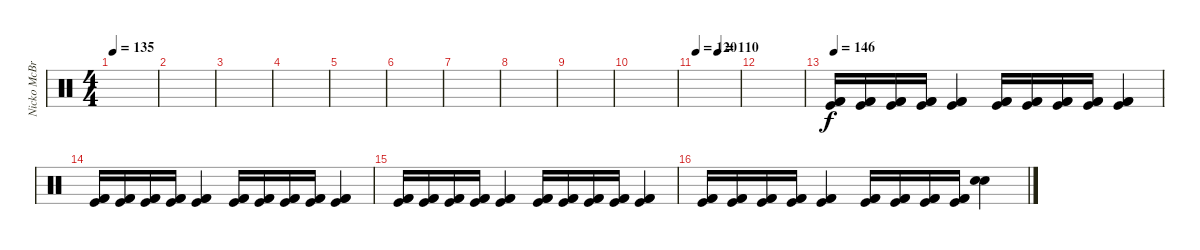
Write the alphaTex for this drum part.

\track ("Nicko McBrain" "Nicko McBr") {instrument percussion}
\staff {score}
\articulation defaults
\ts (4 4)
\tempo 135
\clef neutral
\ks c
|
|
|
|
|
|
|
|
|
|
\tempo 120
\tempo (110 0.5)
|
|
\tempo 146
("Kick (hit)" "Kick (hit) 2" "Kick (hit) 2").16 ("Kick (hit)" "Kick (hit) 2" "Kick (hit) 2").16 ("Kick (hit)" "Kick (hit) 2" "Kick (hit) 2").16 ("Kick (hit)" "Kick (hit) 2" "Kick (hit) 2").16 ("Kick (hit)" "Kick (hit) 2" "Kick (hit) 2").4 ("Kick (hit)" "Kick (hit) 2" "Kick (hit) 2").16 ("Kick (hit)" "Kick (hit) 2" "Kick (hit) 2").16 ("Kick (hit)" "Kick (hit) 2" "Kick (hit) 2").16 ("Kick (hit)" "Kick (hit) 2" "Kick (hit) 2").16 ("Kick (hit)" "Kick (hit) 2" "Kick (hit) 2").4 |
("Kick (hit)" "Kick (hit) 2" "Kick (hit) 2").16 ("Kick (hit)" "Kick (hit) 2" "Kick (hit) 2").16 ("Kick (hit)" "Kick (hit) 2" "Kick (hit) 2").16 ("Kick (hit)" "Kick (hit) 2" "Kick (hit) 2").16 ("Kick (hit)" "Kick (hit) 2" "Kick (hit) 2").4 ("Kick (hit)" "Kick (hit) 2" "Kick (hit) 2").16 ("Kick (hit)" "Kick (hit) 2" "Kick (hit) 2").16 ("Kick (hit)" "Kick (hit) 2" "Kick (hit) 2").16 ("Kick (hit)" "Kick (hit) 2" "Kick (hit) 2").16 ("Kick (hit)" "Kick (hit) 2" "Kick (hit) 2").4 |
("Kick (hit)" "Kick (hit) 2" "Kick (hit) 2").16 ("Kick (hit)" "Kick (hit) 2" "Kick (hit) 2").16 ("Kick (hit)" "Kick (hit) 2" "Kick (hit) 2").16 ("Kick (hit)" "Kick (hit) 2" "Kick (hit) 2").16 ("Kick (hit)" "Kick (hit) 2" "Kick (hit) 2").4 ("Kick (hit)" "Kick (hit) 2" "Kick (hit) 2").16 ("Kick (hit)" "Kick (hit) 2" "Kick (hit) 2").16 ("Kick (hit)" "Kick (hit) 2" "Kick (hit) 2").16 ("Kick (hit)" "Kick (hit) 2" "Kick (hit) 2").16 ("Kick (hit)" "Kick (hit) 2" "Kick (hit) 2").4 |
("Kick (hit)" "Kick (hit) 2" "Kick (hit) 2").16 ("Kick (hit)" "Kick (hit) 2" "Kick (hit) 2").16 ("Kick (hit)" "Kick (hit) 2" "Kick (hit) 2").16 ("Kick (hit)" "Kick (hit) 2" "Kick (hit) 2").16 ("Kick (hit)" "Kick (hit) 2" "Kick (hit) 2").4 ("Kick (hit)" "Kick (hit) 2" "Kick (hit) 2").16 ("Kick (hit)" "Kick (hit) 2" "Kick (hit) 2").16 ("Kick (hit)" "Kick (hit) 2" "Kick (hit) 2").16 ("Kick (hit)" "Kick (hit) 2" "Kick (hit) 2").16 ("Snare (hit) 2" "Snare (hit) 2").4
